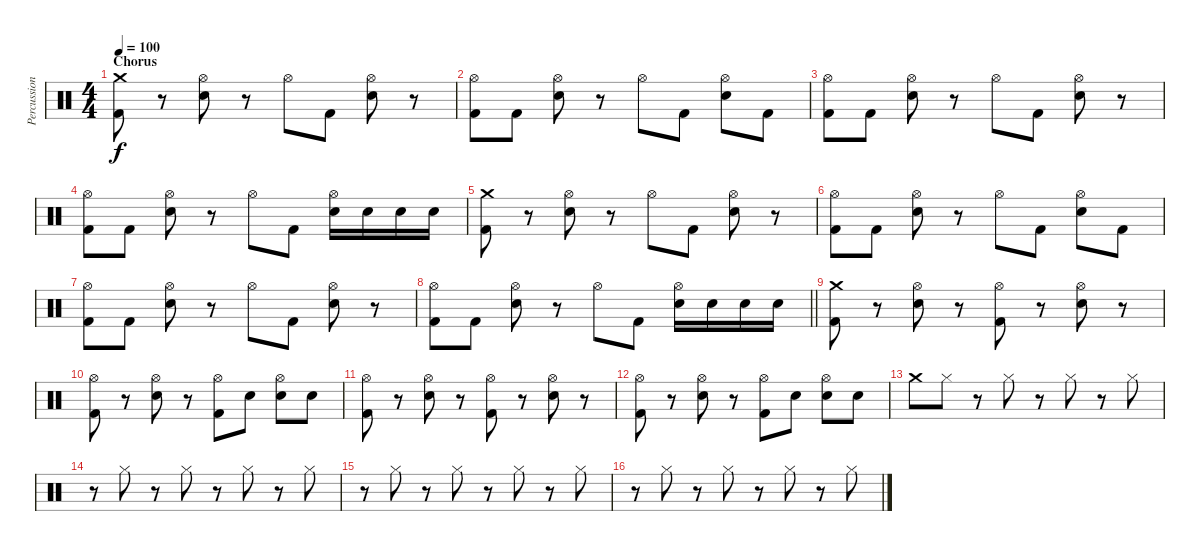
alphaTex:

\track ("Percussion" "Percussion") {instrument percussion}
\staff {score}
\articulation defaults
\ts (4 4)
\section ("" "Chorus")
\tempo 100
\clef neutral
\ks c
("Crash medium (hit)" "Kick (hit) 2").8{dy f} r.8 ("Hi-Hat (open)" "Snare (hit) 2").8 r.8 "Hi-Hat (open)".8 "Kick (hit) 2".8 ("Hi-Hat (open)" "Snare (hit) 2").8 r.8 |
("Hi-Hat (open)" "Kick (hit) 2").8 "Kick (hit) 2".8 ("Hi-Hat (open)" "Snare (hit) 2").8 r.8 "Hi-Hat (open)".8 "Kick (hit) 2".8 ("Hi-Hat (open)" "Snare (hit) 2").8 "Kick (hit) 2".8 |
("Hi-Hat (open)" "Kick (hit) 2").8 "Kick (hit) 2".8 ("Hi-Hat (open)" "Snare (hit) 2").8 r.8 "Hi-Hat (open)".8 "Kick (hit) 2".8 ("Hi-Hat (open)" "Snare (hit) 2").8 r.8 |
("Hi-Hat (open)" "Kick (hit) 2").8 "Kick (hit) 2".8 ("Hi-Hat (open)" "Snare (hit) 2").8 r.8 "Hi-Hat (open)".8 "Kick (hit) 2".8 ("Hi-Hat (open)" "Snare (hit) 2").16 "Snare (hit) 2".16 "Snare (hit) 2".16 "Snare (hit) 2".16 |
("Crash medium (hit)" "Kick (hit) 2").8 r.8 ("Hi-Hat (open)" "Snare (hit) 2").8 r.8 "Hi-Hat (open)".8 "Kick (hit) 2".8 ("Hi-Hat (open)" "Snare (hit) 2").8 r.8 |
("Hi-Hat (open)" "Kick (hit) 2").8 "Kick (hit) 2".8 ("Hi-Hat (open)" "Snare (hit) 2").8 r.8 "Hi-Hat (open)".8 "Kick (hit) 2".8 ("Hi-Hat (open)" "Snare (hit) 2").8 "Kick (hit) 2".8 |
("Hi-Hat (open)" "Kick (hit) 2").8 "Kick (hit) 2".8 ("Hi-Hat (open)" "Snare (hit) 2").8 r.8 "Hi-Hat (open)".8 "Kick (hit) 2".8 ("Hi-Hat (open)" "Snare (hit) 2").8 r.8 |
\barLineRight lightlight
("Hi-Hat (open)" "Kick (hit) 2").8 "Kick (hit) 2".8 ("Hi-Hat (open)" "Snare (hit) 2").8 r.8 "Hi-Hat (open)".8 "Kick (hit) 2".8 ("Hi-Hat (open)" "Snare (hit) 2").16 "Snare (hit) 2".16 "Snare (hit) 2".16 "Snare (hit) 2".16 |
("Crash medium (hit)" "Kick (hit) 2").8 r.8 ("Hi-Hat (open)" "Snare (hit) 2").8 r.8 ("Hi-Hat (open)" "Kick (hit) 2").8 r.8 ("Hi-Hat (open)" "Snare (hit) 2").8 r.8 |
("Hi-Hat (open)" "Kick (hit) 2").8 r.8 ("Hi-Hat (open)" "Snare (hit) 2").8 r.8 ("Hi-Hat (open)" "Kick (hit) 2").8 "Snare (hit) 2".8 ("Hi-Hat (open)" "Snare (hit) 2").8 "Snare (hit) 2".8 |
("Hi-Hat (open)" "Kick (hit) 2").8 r.8 ("Hi-Hat (open)" "Snare (hit) 2").8 r.8 ("Hi-Hat (open)" "Kick (hit) 2").8 r.8 ("Hi-Hat (open)" "Snare (hit) 2").8 r.8 |
("Hi-Hat (open)" "Kick (hit) 2").8 r.8 ("Hi-Hat (open)" "Snare (hit) 2").8 r.8 ("Hi-Hat (open)" "Kick (hit) 2").8 "Snare (hit) 2".8 ("Hi-Hat (open)" "Snare (hit) 2").8 "Snare (hit) 2".8 |
"Crash medium (hit)".8 "Hi-Hat (closed)".8 r.8 "Hi-Hat (closed)".8 r.8 "Hi-Hat (closed)".8 r.8 "Hi-Hat (closed)".8 |
r.8 "Hi-Hat (closed)".8 r.8 "Hi-Hat (closed)".8 r.8 "Hi-Hat (closed)".8 r.8 "Hi-Hat (closed)".8 |
r.8 "Hi-Hat (closed)".8 r.8 "Hi-Hat (closed)".8 r.8 "Hi-Hat (closed)".8 r.8 "Hi-Hat (closed)".8 |
r.8 "Hi-Hat (closed)".8 r.8 "Hi-Hat (closed)".8 r.8 "Hi-Hat (closed)".8 r.8 "Hi-Hat (closed)".8
